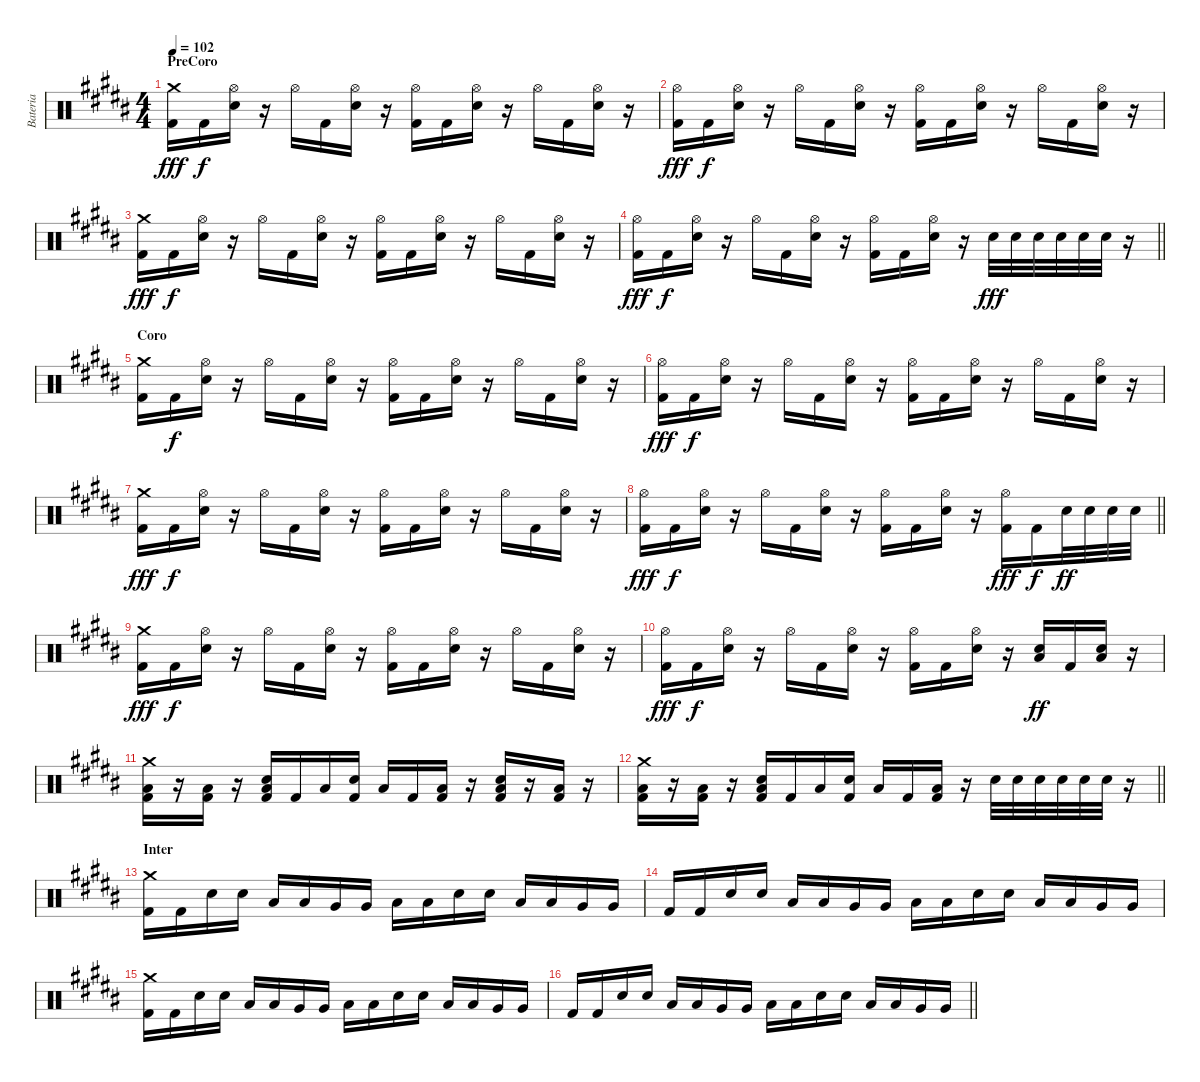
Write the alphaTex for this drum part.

\track ("Bateria" "Bateria") {instrument percussion}
\staff {score}
\articulation defaults
\ts (4 4)
\section ("" "PreCoro")
\tempo 102
\clef neutral
\ks b
("Crash medium (hit)" "Kick (hit) 2").16{dy fff} "Kick (hit) 2".16{dy f} ("Hi-Hat (open)" "Electric Snare (hit)").16 r.16 "Hi-Hat (open)".16 "Kick (hit) 2".16 ("Hi-Hat (open)" "Electric Snare (hit)").16 r.16 ("Hi-Hat (open)" "Kick (hit) 2").16 "Kick (hit) 2".16 ("Hi-Hat (open)" "Electric Snare (hit)").16 r.16 "Hi-Hat (open)".16 "Kick (hit) 2".16 ("Hi-Hat (open)" "Electric Snare (hit)").16 r.16 |
("Hi-Hat (open)" "Kick (hit) 2").16{dy fff} "Kick (hit) 2".16{dy f} ("Hi-Hat (open)" "Electric Snare (hit)").16 r.16 "Hi-Hat (open)".16 "Kick (hit) 2".16 ("Hi-Hat (open)" "Electric Snare (hit)").16 r.16 ("Hi-Hat (open)" "Kick (hit) 2").16 "Kick (hit) 2".16 ("Hi-Hat (open)" "Electric Snare (hit)").16 r.16 "Hi-Hat (open)".16 "Kick (hit) 2".16 ("Hi-Hat (open)" "Electric Snare (hit)").16 r.16 |
("Crash medium (hit)" "Kick (hit) 2").16{dy fff} "Kick (hit) 2".16{dy f} ("Hi-Hat (open)" "Electric Snare (hit)").16 r.16 "Hi-Hat (open)".16 "Kick (hit) 2".16 ("Hi-Hat (open)" "Electric Snare (hit)").16 r.16 ("Hi-Hat (open)" "Kick (hit) 2").16 "Kick (hit) 2".16 ("Hi-Hat (open)" "Electric Snare (hit)").16 r.16 "Hi-Hat (open)".16 "Kick (hit) 2".16 ("Hi-Hat (open)" "Electric Snare (hit)").16 r.16 |
\barLineRight lightlight
("Hi-Hat (open)" "Kick (hit) 2").16{dy fff} "Kick (hit) 2".16{dy f} ("Hi-Hat (open)" "Electric Snare (hit)").16 r.16 "Hi-Hat (open)".16 "Kick (hit) 2".16 ("Hi-Hat (open)" "Electric Snare (hit)").16 r.16 ("Hi-Hat (open)" "Kick (hit) 2").16 "Kick (hit) 2".16 ("Hi-Hat (open)" "Electric Snare (hit)").16 r.16 "Electric Snare (hit)".32{dy fff} "Electric Snare (hit)".32 "Electric Snare (hit)".32 "Electric Snare (hit)".32 "Electric Snare (hit)".32 "Electric Snare (hit)".32 r.16 |
\section ("" "Coro")
("Crash medium (hit)" "Kick (hit) 2").16 "Kick (hit) 2".16{dy f} ("Hi-Hat (open)" "Electric Snare (hit)").16 r.16 "Hi-Hat (open)".16 "Kick (hit) 2".16 ("Hi-Hat (open)" "Electric Snare (hit)").16 r.16 ("Hi-Hat (open)" "Kick (hit) 2").16 "Kick (hit) 2".16 ("Hi-Hat (open)" "Electric Snare (hit)").16 r.16 "Hi-Hat (open)".16 "Kick (hit) 2".16 ("Hi-Hat (open)" "Electric Snare (hit)").16 r.16 |
("Hi-Hat (open)" "Kick (hit) 2").16{dy fff} "Kick (hit) 2".16{dy f} ("Hi-Hat (open)" "Snare (hit) 2").16 r.16 "Hi-Hat (open)".16 "Kick (hit) 2".16 ("Hi-Hat (open)" "Snare (hit) 2").16 r.16 ("Hi-Hat (open)" "Kick (hit) 2").16 "Kick (hit) 2".16 ("Hi-Hat (open)" "Snare (hit) 2").16 r.16 "Hi-Hat (open)".16 "Kick (hit) 2".16 ("Hi-Hat (open)" "Snare (hit) 2").16 r.16 |
("Crash medium (hit)" "Kick (hit) 2").16{dy fff} "Kick (hit) 2".16{dy f} ("Hi-Hat (open)" "Snare (hit) 2").16 r.16 "Hi-Hat (open)".16 "Kick (hit) 2".16 ("Hi-Hat (open)" "Snare (hit) 2").16 r.16 ("Hi-Hat (open)" "Kick (hit) 2").16 "Kick (hit) 2".16 ("Hi-Hat (open)" "Snare (hit) 2").16 r.16 "Hi-Hat (open)".16 "Kick (hit) 2".16 ("Hi-Hat (open)" "Snare (hit) 2").16 r.16 |
\barLineRight lightlight
("Hi-Hat (open)" "Kick (hit) 2").16{dy fff} "Kick (hit) 2".16{dy f} ("Hi-Hat (open)" "Snare (hit) 2").16 r.16 "Hi-Hat (open)".16 "Kick (hit) 2".16 ("Hi-Hat (open)" "Snare (hit) 2").16 r.16 ("Hi-Hat (open)" "Kick (hit) 2").16 "Kick (hit) 2".16 ("Hi-Hat (open)" "Snare (hit) 2").16 r.16 ("Hi-Hat (open)" "Kick (hit) 2").16{dy fff} "Kick (hit) 2".16{dy f} "Snare (hit) 2".32{dy ff} "Snare (hit) 2".32 "Snare (hit) 2".32 "Snare (hit) 2".32 |
("Crash medium (hit)" "Kick (hit) 2").16{dy fff} "Kick (hit) 2".16{dy f} ("Hi-Hat (open)" "Snare (hit) 2").16 r.16 "Hi-Hat (open)".16 "Kick (hit) 2".16 ("Hi-Hat (open)" "Snare (hit) 2").16 r.16 ("Hi-Hat (open)" "Kick (hit) 2").16 "Kick (hit) 2".16 ("Hi-Hat (open)" "Snare (hit) 2").16 r.16 "Hi-Hat (open)".16 "Kick (hit) 2".16 ("Hi-Hat (open)" "Snare (hit) 2").16 r.16 |
("Hi-Hat (open)" "Kick (hit) 2").16{dy fff} "Kick (hit) 2".16{dy f} ("Hi-Hat (open)" "Snare (hit) 2").16 r.16 "Hi-Hat (open)".16 "Kick (hit) 2".16 ("Hi-Hat (open)" "Snare (hit) 2").16 r.16 ("Hi-Hat (open)" "Kick (hit) 2").16 "Kick (hit) 2".16 ("Hi-Hat (open)" "Snare (hit) 2").16 r.16 ("Low Floor Tom (hit)" "Snare (hit) 2").16{dy ff} "Kick (hit) 2".16 ("Low Floor Tom (hit)" "Snare (hit) 2").16 r.16 |
("Crash medium (hit)" "Low Floor Tom (hit)" "Kick (hit) 2").16 r.16 ("Low Floor Tom (hit)" "Kick (hit) 2").16 r.16 ("Snare (hit) 2" "Low Floor Tom (hit)" "Kick (hit) 2").16 "Kick (hit) 2".16 "Low Floor Tom (hit)".16 ("Snare (hit) 2" "Kick (hit) 2").16 "Low Floor Tom (hit)".16 "Kick (hit) 2".16 ("Low Floor Tom (hit)" "Kick (hit) 2").16 r.16 ("Snare (hit) 2" "Low Floor Tom (hit)" "Kick (hit) 2").16 r.16 ("Low Floor Tom (hit)" "Kick (hit) 2").16 r.16 |
\barLineRight lightlight
("Crash medium (hit)" "Low Floor Tom (hit)" "Kick (hit) 2").16 r.16 ("Low Floor Tom (hit)" "Kick (hit) 2").16 r.16 ("Snare (hit) 2" "Low Floor Tom (hit)" "Kick (hit) 2").16 "Kick (hit) 2".16 "Low Floor Tom (hit)".16 ("Snare (hit) 2" "Kick (hit) 2").16 "Low Floor Tom (hit)".16 "Kick (hit) 2".16 ("Low Floor Tom (hit)" "Kick (hit) 2").16 r.16 "Snare (hit) 2".32 "Snare (hit) 2".32 "Snare (hit) 2".32 "Snare (hit) 2".32 "Snare (hit) 2".32 "Snare (hit) 2".32 r.16 |
\section ("" "Inter")
("Crash medium (hit)" "Kick (hit) 2").16 "Kick (hit) 2".16 "Snare (hit) 2".16 "Snare (hit) 2".16 "Low Tom (hit)".16 "Low Tom (hit)".16 "Very Low Tom (hit)".16 "Very Low Tom (hit)".16 "Low Floor Tom (hit)".16 "Low Floor Tom (hit)".16 "Snare (hit) 2".16 "Snare (hit) 2".16 "Low Tom (hit)".16 "Low Tom (hit)".16 "Very Low Tom (hit)".16 "Very Low Tom (hit)".16 |
"Kick (hit) 2".16 "Kick (hit) 2".16 "Snare (hit) 2".16 "Snare (hit) 2".16 "Low Tom (hit)".16 "Low Tom (hit)".16 "Very Low Tom (hit)".16 "Very Low Tom (hit)".16 "Low Floor Tom (hit)".16 "Low Floor Tom (hit)".16 "Snare (hit) 2".16 "Snare (hit) 2".16 "Low Tom (hit)".16 "Low Tom (hit)".16 "Very Low Tom (hit)".16 "Very Low Tom (hit)".16 |
("Crash medium (hit)" "Kick (hit) 2").16 "Kick (hit) 2".16 "Snare (hit) 2".16 "Snare (hit) 2".16 "Low Tom (hit)".16 "Low Tom (hit)".16 "Very Low Tom (hit)".16 "Very Low Tom (hit)".16 "Low Floor Tom (hit)".16 "Low Floor Tom (hit)".16 "Snare (hit) 2".16 "Snare (hit) 2".16 "Low Tom (hit)".16 "Low Tom (hit)".16 "Very Low Tom (hit)".16 "Very Low Tom (hit)".16 |
\barLineRight lightlight "Kick (hit) 2".16 "Kick (hit) 2".16 "Snare (hit) 2".16 "Snare (hit) 2".16 "Low Tom (hit)".16 "Low Tom (hit)".16 "Very Low Tom (hit)".16 "Very Low Tom (hit)".16 "Low Floor Tom (hit)".16 "Low Floor Tom (hit)".16 "Snare (hit) 2".16 "Snare (hit) 2".16 "Low Tom (hit)".16 "Low Tom (hit)".16 "Very Low Tom (hit)".16 "Very Low Tom (hit)".16
